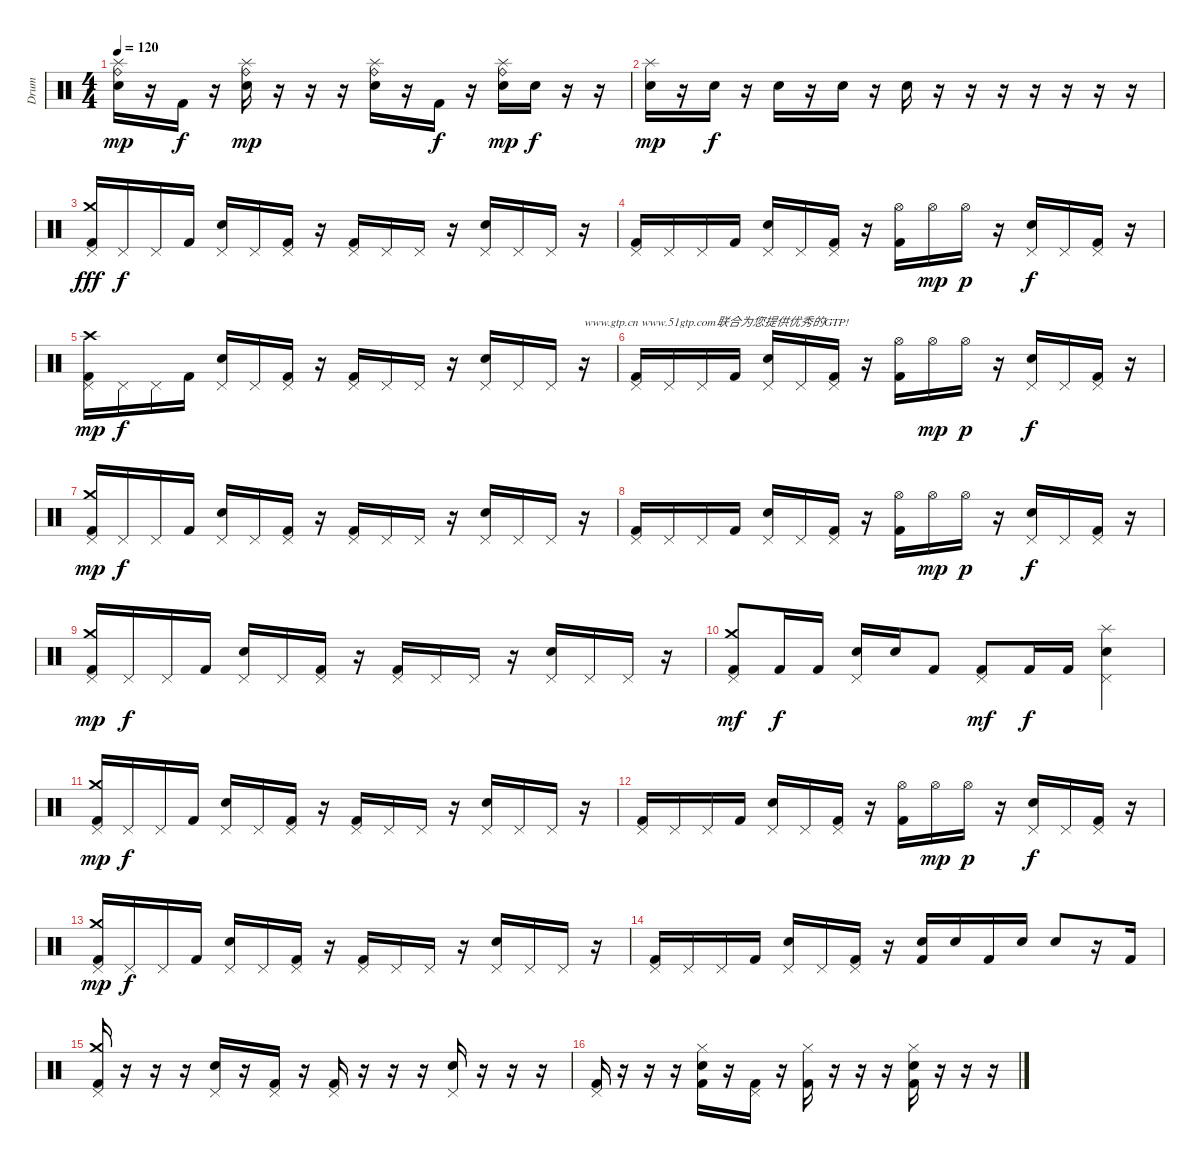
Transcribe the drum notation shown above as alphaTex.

\track ("Drum" "Drum") {instrument percussion}
\staff {score}
\articulation defaults
\ts (4 4)
\tempo 120
\clef neutral
\ks c
("Ride (bell)" "Splash (hit)" "Snare (hit) 2").16{dy mp} r.16 "Kick (hit) 2".16{dy f} r.16 ("Ride (bell)" "Splash (hit)" "Snare (hit) 2").16{dy mp} r.16 r.16 r.16 ("Ride (bell)" "Splash (hit)" "Snare (hit) 2").16 r.16 "Kick (hit) 2".16{dy f} r.16 ("Ride (bell)" "Splash (hit)" "Snare (hit) 2").16{dy mp} "Snare (hit) 2".16{dy f} r.16 r.16 |
("Splash (hit)" "Snare (hit) 2").16{dy mp} r.16 "Snare (hit) 2".16{dy f} r.16 "Snare (hit) 2".16 r.16 "Snare (hit) 2".16 r.16 "Snare (hit) 2".16 r.16 r.16 r.16 r.16 r.16 r.16 r.16 |
("Crash medium (hit)" "Pedal Hi-Hat (hit)" "Kick (hit) 2").16{dy fff} "Pedal Hi-Hat (hit)".16{dy f} "Pedal Hi-Hat (hit)".16 "Kick (hit) 2".16 ("Pedal Hi-Hat (hit)" "Snare (hit) 2").16 "Pedal Hi-Hat (hit)".16 ("Pedal Hi-Hat (hit)" "Kick (hit) 2").16 r.16 ("Pedal Hi-Hat (hit)" "Kick (hit) 2").16 "Pedal Hi-Hat (hit)".16 "Pedal Hi-Hat (hit)".16 r.16 ("Pedal Hi-Hat (hit)" "Snare (hit) 2").16 "Pedal Hi-Hat (hit)".16 "Pedal Hi-Hat (hit)".16 r.16 |
("Pedal Hi-Hat (hit)" "Kick (hit) 2").16 "Pedal Hi-Hat (hit)".16 "Pedal Hi-Hat (hit)".16 "Kick (hit) 2".16 ("Pedal Hi-Hat (hit)" "Snare (hit) 2").16 "Pedal Hi-Hat (hit)".16 ("Pedal Hi-Hat (hit)" "Kick (hit) 2").16 r.16 ("Hi-Hat (open)" "Kick (hit) 2").16 "Hi-Hat (open)".16{dy mp} "Hi-Hat (open)".16{dy p} r.16 ("Pedal Hi-Hat (hit)" "Snare (hit) 2").16{dy f} "Pedal Hi-Hat (hit)".16 ("Pedal Hi-Hat (hit)" "Kick (hit) 2").16 r.16 |
("Crash high (hit)" "Pedal Hi-Hat (hit)" "Kick (hit) 2").16{dy mp} "Pedal Hi-Hat (hit)".16{dy f} "Pedal Hi-Hat (hit)".16 "Kick (hit) 2".16 ("Pedal Hi-Hat (hit)" "Snare (hit) 2").16 "Pedal Hi-Hat (hit)".16 ("Pedal Hi-Hat (hit)" "Kick (hit) 2").16 r.16 ("Pedal Hi-Hat (hit)" "Kick (hit) 2").16 "Pedal Hi-Hat (hit)".16 "Pedal Hi-Hat (hit)".16 r.16 ("Pedal Hi-Hat (hit)" "Snare (hit) 2").16 "Pedal Hi-Hat (hit)".16 "Pedal Hi-Hat (hit)".16 r.16{txt "www.gtp.cn www.51gtp.com联合为您提供优秀的GTP!"} |
("Pedal Hi-Hat (hit)" "Kick (hit) 2").16 "Pedal Hi-Hat (hit)".16 "Pedal Hi-Hat (hit)".16 "Kick (hit) 2".16 ("Pedal Hi-Hat (hit)" "Snare (hit) 2").16 "Pedal Hi-Hat (hit)".16 ("Pedal Hi-Hat (hit)" "Kick (hit) 2").16 r.16 ("Hi-Hat (open)" "Kick (hit) 2").16 "Hi-Hat (open)".16{dy mp} "Hi-Hat (open)".16{dy p} r.16 ("Pedal Hi-Hat (hit)" "Snare (hit) 2").16{dy f} "Pedal Hi-Hat (hit)".16 ("Pedal Hi-Hat (hit)" "Kick (hit) 2").16 r.16 |
("Crash medium (hit)" "Pedal Hi-Hat (hit)" "Kick (hit) 2").16{dy mp} "Pedal Hi-Hat (hit)".16{dy f} "Pedal Hi-Hat (hit)".16 "Kick (hit) 2".16 ("Pedal Hi-Hat (hit)" "Snare (hit) 2").16 "Pedal Hi-Hat (hit)".16 ("Pedal Hi-Hat (hit)" "Kick (hit) 2").16 r.16 ("Pedal Hi-Hat (hit)" "Kick (hit) 2").16 "Pedal Hi-Hat (hit)".16 "Pedal Hi-Hat (hit)".16 r.16 ("Pedal Hi-Hat (hit)" "Snare (hit) 2").16 "Pedal Hi-Hat (hit)".16 "Pedal Hi-Hat (hit)".16 r.16 |
("Pedal Hi-Hat (hit)" "Kick (hit) 2").16 "Pedal Hi-Hat (hit)".16 "Pedal Hi-Hat (hit)".16 "Kick (hit) 2".16 ("Pedal Hi-Hat (hit)" "Snare (hit) 2").16 "Pedal Hi-Hat (hit)".16 ("Pedal Hi-Hat (hit)" "Kick (hit) 2").16 r.16 ("Hi-Hat (open)" "Kick (hit) 2").16 "Hi-Hat (open)".16{dy mp} "Hi-Hat (open)".16{dy p} r.16 ("Pedal Hi-Hat (hit)" "Snare (hit) 2").16{dy f} "Pedal Hi-Hat (hit)".16 ("Pedal Hi-Hat (hit)" "Kick (hit) 2").16 r.16 |
("Crash medium (hit)" "Pedal Hi-Hat (hit)" "Kick (hit) 2").16{dy mp} "Pedal Hi-Hat (hit)".16{dy f} "Pedal Hi-Hat (hit)".16 "Kick (hit) 2".16 ("Pedal Hi-Hat (hit)" "Snare (hit) 2").16 "Pedal Hi-Hat (hit)".16 ("Pedal Hi-Hat (hit)" "Kick (hit) 2").16 r.16 ("Pedal Hi-Hat (hit)" "Kick (hit) 2").16 "Pedal Hi-Hat (hit)".16 "Pedal Hi-Hat (hit)".16 r.16 ("Pedal Hi-Hat (hit)" "Snare (hit) 2").16 "Pedal Hi-Hat (hit)".16 "Pedal Hi-Hat (hit)".16 r.16 |
("Crash medium (hit)" "Pedal Hi-Hat (hit)" "Kick (hit) 2").8{dy mf} "Kick (hit) 2".16{dy f} "Kick (hit) 2".16 ("Pedal Hi-Hat (hit)" "Snare (hit) 2").16 "Snare (hit) 2".16 "Kick (hit) 2".8 ("Pedal Hi-Hat (hit)" "Kick (hit) 2").8{dy mf} "Kick (hit) 2".16{dy f} "Kick (hit) 2".16 ("Splash (hit)" "Pedal Hi-Hat (hit)" "Snare (hit) 2").4 |
("Crash medium (hit)" "Pedal Hi-Hat (hit)" "Kick (hit) 2").16{dy mp} "Pedal Hi-Hat (hit)".16{dy f} "Pedal Hi-Hat (hit)".16 "Kick (hit) 2".16 ("Pedal Hi-Hat (hit)" "Snare (hit) 2").16 "Pedal Hi-Hat (hit)".16 ("Pedal Hi-Hat (hit)" "Kick (hit) 2").16 r.16 ("Pedal Hi-Hat (hit)" "Kick (hit) 2").16 "Pedal Hi-Hat (hit)".16 "Pedal Hi-Hat (hit)".16 r.16 ("Pedal Hi-Hat (hit)" "Snare (hit) 2").16 "Pedal Hi-Hat (hit)".16 "Pedal Hi-Hat (hit)".16 r.16 |
("Pedal Hi-Hat (hit)" "Kick (hit) 2").16 "Pedal Hi-Hat (hit)".16 "Pedal Hi-Hat (hit)".16 "Kick (hit) 2".16 ("Pedal Hi-Hat (hit)" "Snare (hit) 2").16 "Pedal Hi-Hat (hit)".16 ("Pedal Hi-Hat (hit)" "Kick (hit) 2").16 r.16 ("Hi-Hat (open)" "Kick (hit) 2").16 "Hi-Hat (open)".16{dy mp} "Hi-Hat (open)".16{dy p} r.16 ("Pedal Hi-Hat (hit)" "Snare (hit) 2").16{dy f} "Pedal Hi-Hat (hit)".16 ("Pedal Hi-Hat (hit)" "Kick (hit) 2").16 r.16 |
("Crash medium (hit)" "Pedal Hi-Hat (hit)" "Kick (hit) 2").16{dy mp} "Pedal Hi-Hat (hit)".16{dy f} "Pedal Hi-Hat (hit)".16 "Kick (hit) 2".16 ("Pedal Hi-Hat (hit)" "Snare (hit) 2").16 "Pedal Hi-Hat (hit)".16 ("Pedal Hi-Hat (hit)" "Kick (hit) 2").16 r.16 ("Pedal Hi-Hat (hit)" "Kick (hit) 2").16 "Pedal Hi-Hat (hit)".16 "Pedal Hi-Hat (hit)".16 r.16 ("Pedal Hi-Hat (hit)" "Snare (hit) 2").16 "Pedal Hi-Hat (hit)".16 "Pedal Hi-Hat (hit)".16 r.16 |
("Pedal Hi-Hat (hit)" "Kick (hit) 2").16 "Pedal Hi-Hat (hit)".16 "Pedal Hi-Hat (hit)".16 "Kick (hit) 2".16 ("Pedal Hi-Hat (hit)" "Snare (hit) 2").16 "Pedal Hi-Hat (hit)".16 ("Pedal Hi-Hat (hit)" "Kick (hit) 2").16 r.16 ("Snare (hit) 2" "Kick (hit) 2").16 "Snare (hit) 2".16 "Kick (hit) 2".16 "Snare (hit) 2".16 "Snare (hit) 2".8 r.16 "Kick (hit) 2".16 |
("Crash medium (hit)" "Pedal Hi-Hat (hit)" "Kick (hit) 2").16 r.16 r.16 r.16 ("Pedal Hi-Hat (hit)" "Snare (hit) 2").16 r.16 ("Pedal Hi-Hat (hit)" "Kick (hit) 2").16 r.16 ("Pedal Hi-Hat (hit)" "Kick (hit) 2").16 r.16 r.16 r.16 ("Pedal Hi-Hat (hit)" "Snare (hit) 2").16 r.16 r.16 r.16 |
("Pedal Hi-Hat (hit)" "Kick (hit) 2").16 r.16 r.16 r.16 ("Hi-Hat (closed)" "Snare (hit) 2" "Kick (hit) 2").16 r.16 ("Pedal Hi-Hat (hit)" "Kick (hit) 2").16 r.16 ("Hi-Hat (closed)" "Kick (hit) 2").16 r.16 r.16 r.16 ("Hi-Hat (closed)" "Snare (hit) 2" "Kick (hit) 2").16 r.16 r.16 r.16
